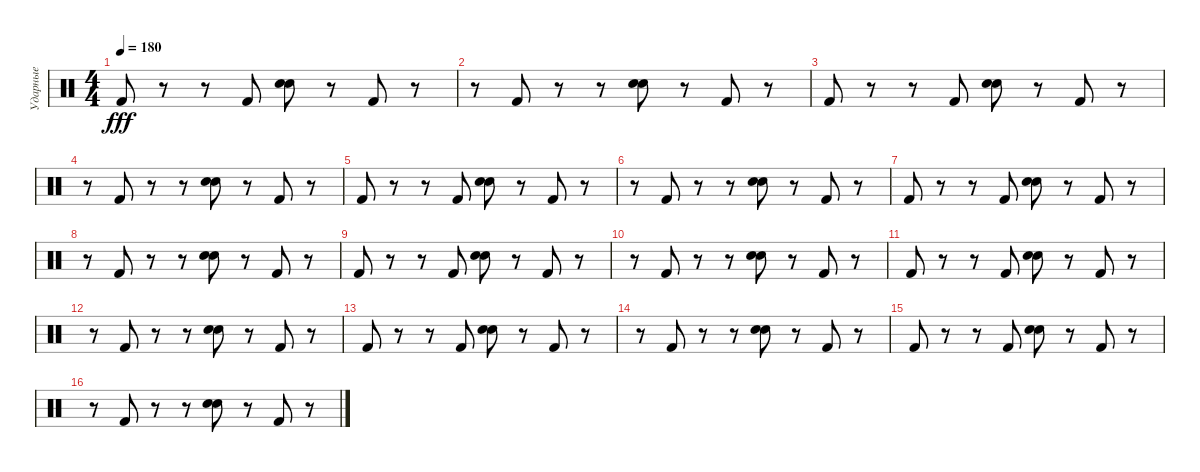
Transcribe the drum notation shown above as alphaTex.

\track ("Ударные" "Ударные") {instrument percussion}
\staff {score}
\articulation defaults
\ts (4 4)
\tempo 180
\clef neutral
\ks c "Kick (hit) 2".8{dy fff}
r.8 r.8 "Kick (hit) 2".8 ("Snare (hit) 2" "Electric Snare (hit)").8 r.8 "Kick (hit) 2".8 r.8 |
r.8 "Kick (hit) 2".8 r.8 r.8 ("Snare (hit) 2" "Electric Snare (hit)").8 r.8 "Kick (hit) 2".8 r.8 |
"Kick (hit) 2".8 r.8 r.8 "Kick (hit) 2".8 ("Snare (hit) 2" "Electric Snare (hit)").8 r.8 "Kick (hit) 2".8 r.8 |
r.8 "Kick (hit) 2".8 r.8 r.8 ("Snare (hit) 2" "Electric Snare (hit)").8 r.8 "Kick (hit) 2".8 r.8 |
"Kick (hit) 2".8 r.8 r.8 "Kick (hit) 2".8 ("Snare (hit) 2" "Electric Snare (hit)").8 r.8 "Kick (hit) 2".8 r.8 |
r.8 "Kick (hit) 2".8 r.8 r.8 ("Snare (hit) 2" "Electric Snare (hit)").8 r.8 "Kick (hit) 2".8 r.8 |
"Kick (hit) 2".8 r.8 r.8 "Kick (hit) 2".8 ("Snare (hit) 2" "Electric Snare (hit)").8 r.8 "Kick (hit) 2".8 r.8 |
r.8 "Kick (hit) 2".8 r.8 r.8 ("Snare (hit) 2" "Electric Snare (hit)").8 r.8 "Kick (hit) 2".8 r.8 |
"Kick (hit) 2".8 r.8 r.8 "Kick (hit) 2".8 ("Snare (hit) 2" "Electric Snare (hit)").8 r.8 "Kick (hit) 2".8 r.8 |
r.8 "Kick (hit) 2".8 r.8 r.8 ("Snare (hit) 2" "Electric Snare (hit)").8 r.8 "Kick (hit) 2".8 r.8 |
"Kick (hit) 2".8 r.8 r.8 "Kick (hit) 2".8 ("Snare (hit) 2" "Electric Snare (hit)").8 r.8 "Kick (hit) 2".8 r.8 |
r.8 "Kick (hit) 2".8 r.8 r.8 ("Snare (hit) 2" "Electric Snare (hit)").8 r.8 "Kick (hit) 2".8 r.8 |
"Kick (hit) 2".8 r.8 r.8 "Kick (hit) 2".8 ("Snare (hit) 2" "Electric Snare (hit)").8 r.8 "Kick (hit) 2".8 r.8 |
r.8 "Kick (hit) 2".8 r.8 r.8 ("Snare (hit) 2" "Electric Snare (hit)").8 r.8 "Kick (hit) 2".8 r.8 |
"Kick (hit) 2".8 r.8 r.8 "Kick (hit) 2".8 ("Snare (hit) 2" "Electric Snare (hit)").8 r.8 "Kick (hit) 2".8 r.8 |
r.8 "Kick (hit) 2".8 r.8 r.8 ("Snare (hit) 2" "Electric Snare (hit)").8 r.8 "Kick (hit) 2".8 r.8
